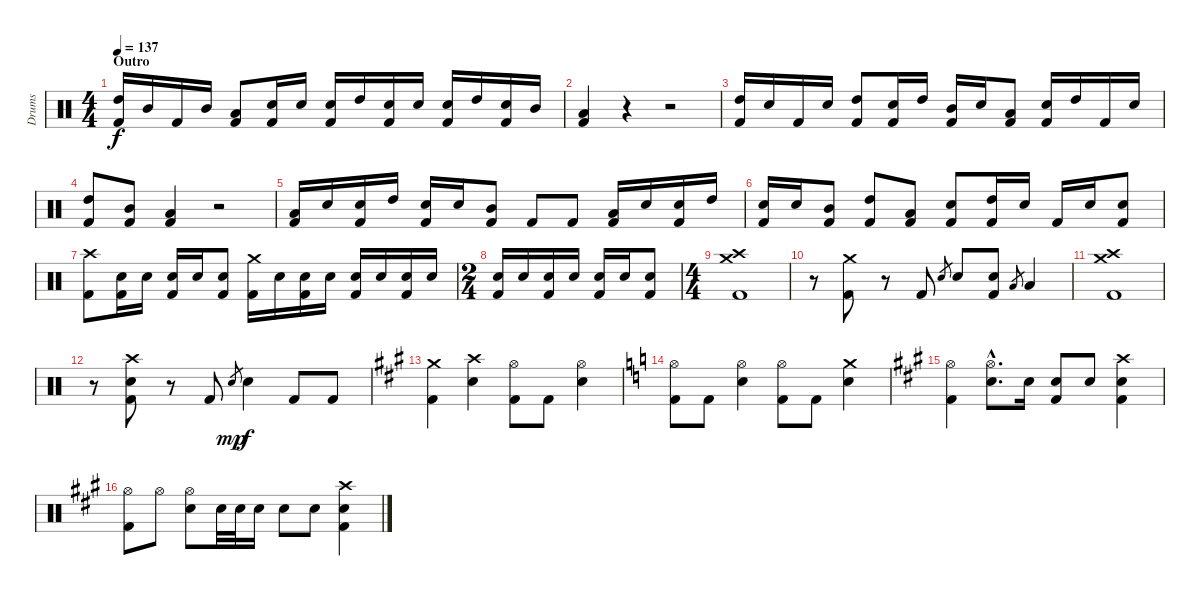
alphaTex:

\track ("Drums" "Drums") {instrument percussion}
\staff {score}
\articulation defaults
\ts (4 4)
\section ("" "Outro")
\tempo 137
\clef neutral
\ks c
("High Tom (hit)" "Kick (hit) 2").16{dy f} "Mid Tom (hit)".16 "Kick (hit) 2".16 "Mid Tom (hit)".16 ("Low Tom (hit)" "Kick (hit) 2").8 ("Snare (hit) 2" "Kick (hit) 2").16 "Snare (hit) 2".16 ("Snare (hit) 2" "Kick (hit) 2").16 "High Tom (hit)".16 ("Snare (hit) 2" "Kick (hit) 2").16 "Snare (hit) 2".16 ("Snare (hit) 2" "Kick (hit) 2").16 "High Tom (hit)".16 ("Snare (hit) 2" "Kick (hit) 2").16 "Mid Tom (hit)".16 |
("Low Tom (hit)" "Kick (hit) 2").4 r.4 r.2 |
("High Tom (hit)" "Kick (hit) 2").16 "Snare (hit) 2".16 "Kick (hit) 2".16 "Snare (hit) 2".16 ("High Tom (hit)" "Kick (hit) 2").8 ("Snare (hit) 2" "Kick (hit) 2").16 "High Tom (hit)".16 ("Mid Tom (hit)" "Kick (hit) 2").16 "Snare (hit) 2".16 ("Low Tom (hit)" "Kick (hit) 2").8 ("Snare (hit) 2" "Kick (hit) 2").16 "High Tom (hit)".16 "Kick (hit) 2".16 "Snare (hit) 2".16 |
("High Tom (hit)" "Kick (hit) 2").8 ("Mid Tom (hit)" "Kick (hit) 2").8 ("Low Tom (hit)" "Kick (hit) 2").4 r.2 |
("Low Tom (hit)" "Kick (hit) 2").16 "Snare (hit) 2".16 ("Snare (hit) 2" "Kick (hit) 2").16 "High Tom (hit)".16 ("Snare (hit) 2" "Kick (hit) 2").16 "Snare (hit) 2".16 ("Mid Tom (hit)" "Kick (hit) 2").8 "Kick (hit) 2".8 "Kick (hit) 2".8 ("Low Tom (hit)" "Kick (hit) 2").16 "Snare (hit) 2".16 ("Snare (hit) 2" "Kick (hit) 2").16 "High Tom (hit)".16 |
("Snare (hit) 2" "Kick (hit) 2").16 "Snare (hit) 2".16 ("Mid Tom (hit)" "Kick (hit) 2").8 ("High Tom (hit)" "Kick (hit) 2").8 ("Low Tom (hit)" "Kick (hit) 2").8 ("Snare (hit) 2" "Kick (hit) 2").8 ("High Tom (hit)" "Kick (hit) 2").16 "Snare (hit) 2".16 "Kick (hit) 2".16 "Snare (hit) 2".16 ("Snare (hit) 2" "Kick (hit) 2").8 |
("Crash high (hit)" "Kick (hit) 2").8 ("Snare (hit) 2" "Kick (hit) 2").16 "Snare (hit) 2".16 ("Snare (hit) 2" "Kick (hit) 2").16 "Snare (hit) 2".16 ("Snare (hit) 2" "Kick (hit) 2").8 ("Crash medium (hit)" "Kick (hit) 2").16 "Snare (hit) 2".16 ("Snare (hit) 2" "Kick (hit) 2").16 "Snare (hit) 2".16 ("Snare (hit) 2" "Kick (hit) 2").16 "Snare (hit) 2".16 ("Snare (hit) 2" "Kick (hit) 2").16 "Snare (hit) 2".16 |
\ts (2 4)
("Snare (hit) 2" "Kick (hit) 2").16 "Snare (hit) 2".16 ("Snare (hit) 2" "Kick (hit) 2").16 "Snare (hit) 2".16 ("Snare (hit) 2" "Kick (hit) 2").16 "Snare (hit) 2".16 ("Snare (hit) 2" "Kick (hit) 2").8 |
\ts (4 4)
("Crash medium (hit)" "Crash high (hit)" "Kick (hit) 2").1 |
r.8 ("Crash medium (hit)" "Kick (hit) 2").8 r.8 "Kick (hit) 2".8 "Snare (hit) 2".8{gr} "Snare (hit) 2".8 ("Snare (hit) 2" "Kick (hit) 2").8 "Low Tom (hit)".8{gr} "Low Tom (hit)".4 |
("Crash medium (hit)" "Crash high (hit)" "Kick (hit) 2").1 |
r.8 ("Crash high (hit)" "Snare (hit) 2" "Kick (hit) 2").8 r.8 "Kick (hit) 2".8 "Snare (hit) 2".8{gr dy mp} "Snare (hit) 2".4{dy f} "Kick (hit) 2".8 "Kick (hit) 2".8 |
\ks a
("Crash medium (hit)" "Kick (hit) 2").4 ("Crash high (hit)" "Snare (hit) 2").4 ("Hi-Hat (open)" "Kick (hit) 2").8 "Kick (hit) 2".8 ("Hi-Hat (open)" "Snare (hit) 2").4 |
\ks c
("Hi-Hat (open)" "Kick (hit) 2").8 "Kick (hit) 2".8 ("Hi-Hat (open)" "Snare (hit) 2").4 ("Hi-Hat (open)" "Kick (hit) 2").8 "Kick (hit) 2".8 ("Crash medium (hit)" "Snare (hit) 2").4 |
\ks a
("Hi-Hat (open)" "Kick (hit) 2").4 ("Hi-Hat (open)"{hac} "Snare (hit) 2"{hac}).8{d} "Snare (hit) 2".16 ("Snare (hit) 2" "Kick (hit) 2").8 "Snare (hit) 2".8 ("Crash high (hit)" "Snare (hit) 2" "Kick (hit) 2").4 |
("Hi-Hat (open)" "Kick (hit) 2").8 "Hi-Hat (open)".8 ("Hi-Hat (open)" "Snare (hit) 2").8 "Snare (hit) 2".32 "Snare (hit) 2".32 "Snare (hit) 2".16 "Snare (hit) 2".8 "Snare (hit) 2".8 ("Crash high (hit)" "Snare (hit) 2" "Kick (hit) 2").4
